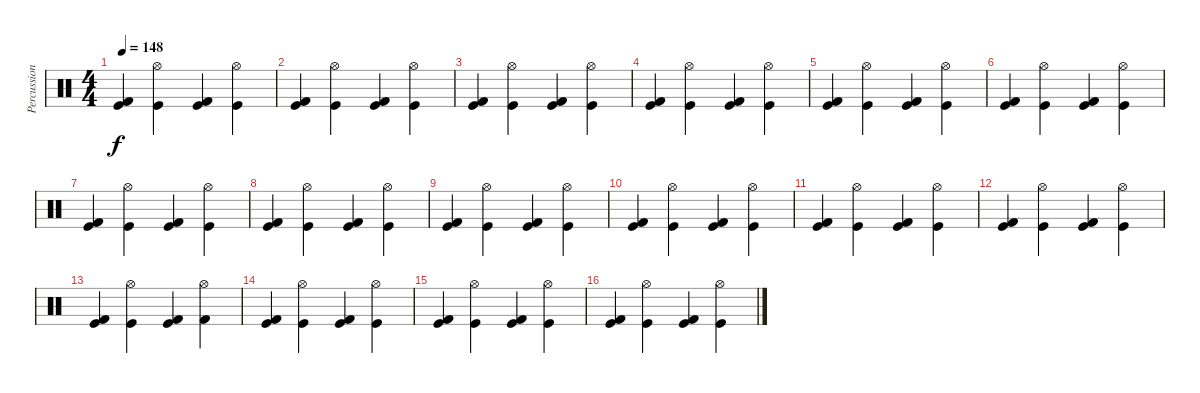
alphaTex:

\track ("Percussion" "Percussion") {instrument percussion}
\staff {score}
\articulation defaults
\ts (4 4)
\tempo 148
\clef neutral
\ks c
("Kick (hit) 2" "Kick (hit)").4{dy f} ("Hi-Hat (open)" "Kick (hit)").4 ("Kick (hit) 2" "Kick (hit)").4 ("Hi-Hat (open)" "Kick (hit)").4 |
("Kick (hit) 2" "Kick (hit)").4 ("Hi-Hat (open)" "Kick (hit)").4 ("Kick (hit) 2" "Kick (hit)").4 ("Hi-Hat (open)" "Kick (hit)").4 |
("Kick (hit) 2" "Kick (hit)").4 ("Hi-Hat (open)" "Kick (hit)").4 ("Kick (hit) 2" "Kick (hit)").4 ("Hi-Hat (open)" "Kick (hit)").4 |
("Kick (hit) 2" "Kick (hit)").4 ("Hi-Hat (open)" "Kick (hit)").4 ("Kick (hit) 2" "Kick (hit)").4 ("Hi-Hat (open)" "Kick (hit)").4 |
("Kick (hit) 2" "Kick (hit)").4 ("Hi-Hat (open)" "Kick (hit)").4 ("Kick (hit) 2" "Kick (hit)").4 ("Hi-Hat (open)" "Kick (hit)").4 |
("Kick (hit) 2" "Kick (hit)").4 ("Hi-Hat (open)" "Kick (hit)").4 ("Kick (hit) 2" "Kick (hit)").4 ("Hi-Hat (open)" "Kick (hit)").4 |
("Kick (hit) 2" "Kick (hit)").4 ("Hi-Hat (open)" "Kick (hit)").4 ("Kick (hit) 2" "Kick (hit)").4 ("Hi-Hat (open)" "Kick (hit)").4 |
("Kick (hit) 2" "Kick (hit)").4 ("Hi-Hat (open)" "Kick (hit)").4 ("Kick (hit) 2" "Kick (hit)").4 ("Hi-Hat (open)" "Kick (hit)").4 |
("Kick (hit) 2" "Kick (hit)").4 ("Hi-Hat (open)" "Kick (hit)").4 ("Kick (hit) 2" "Kick (hit)").4 ("Hi-Hat (open)" "Kick (hit)").4 |
("Kick (hit) 2" "Kick (hit)").4 ("Hi-Hat (open)" "Kick (hit)").4 ("Kick (hit) 2" "Kick (hit)").4 ("Hi-Hat (open)" "Kick (hit)").4 |
("Kick (hit) 2" "Kick (hit)").4 ("Hi-Hat (open)" "Kick (hit)").4 ("Kick (hit) 2" "Kick (hit)").4 ("Hi-Hat (open)" "Kick (hit)").4 |
("Kick (hit) 2" "Kick (hit)").4 ("Hi-Hat (open)" "Kick (hit)").4 ("Kick (hit) 2" "Kick (hit)").4 ("Hi-Hat (open)" "Kick (hit)").4 |
("Kick (hit) 2" "Kick (hit)").4 ("Hi-Hat (open)" "Kick (hit)").4 ("Kick (hit) 2" "Kick (hit)").4 ("Hi-Hat (open)" "Kick (hit) 2").4 |
("Kick (hit) 2" "Kick (hit)").4 ("Hi-Hat (open)" "Kick (hit)").4 ("Kick (hit) 2" "Kick (hit)").4 ("Hi-Hat (open)" "Kick (hit)").4 |
("Kick (hit) 2" "Kick (hit)").4 ("Hi-Hat (open)" "Kick (hit)").4 ("Kick (hit) 2" "Kick (hit)").4 ("Hi-Hat (open)" "Kick (hit)").4 |
("Kick (hit) 2" "Kick (hit)").4 ("Hi-Hat (open)" "Kick (hit)").4 ("Kick (hit) 2" "Kick (hit)").4 ("Hi-Hat (open)" "Kick (hit)").4
